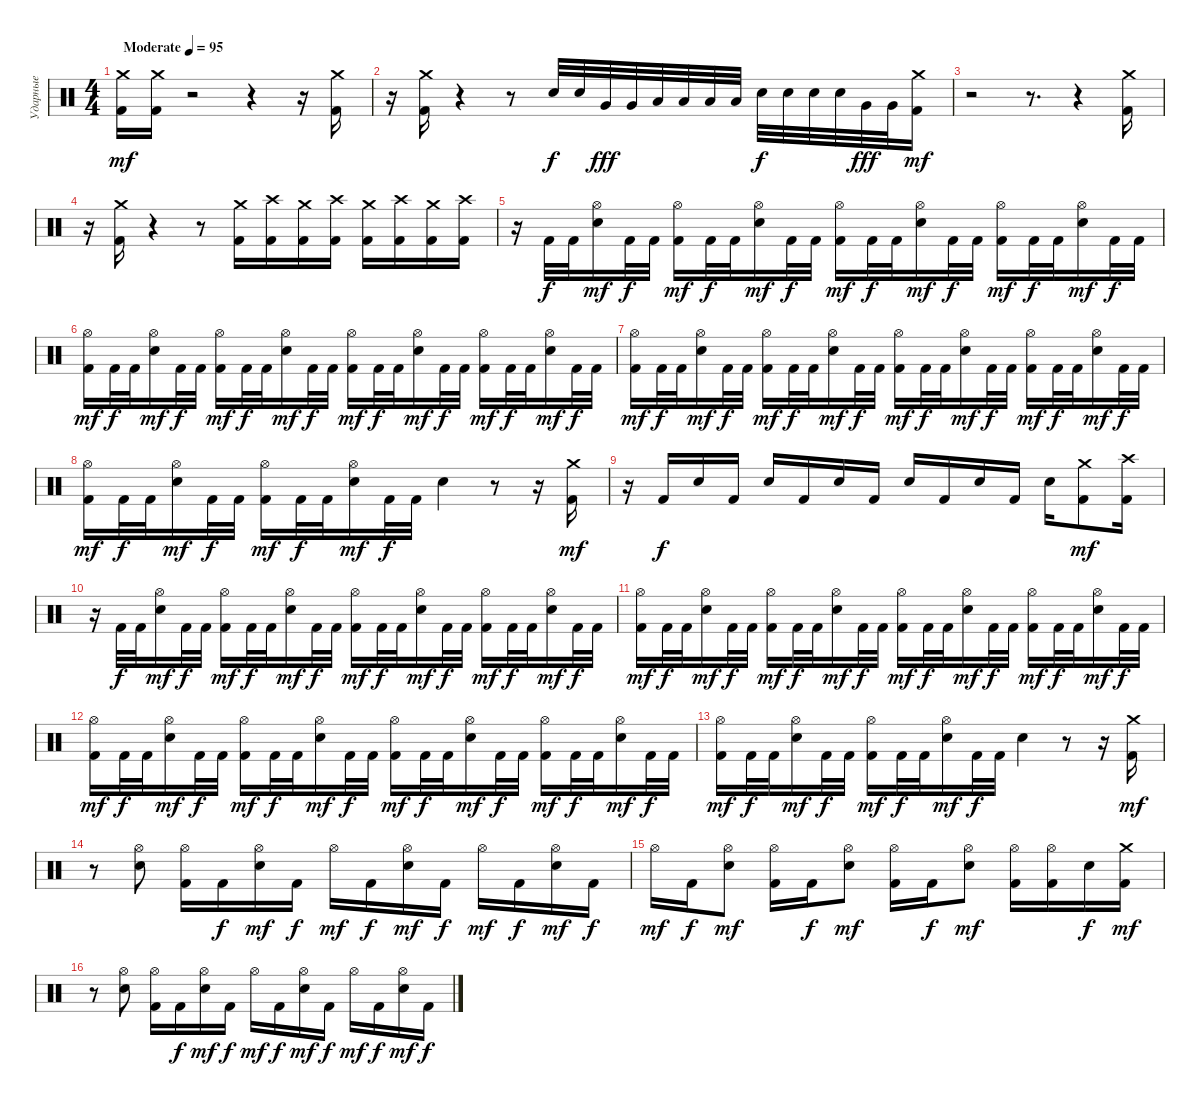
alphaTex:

\track ("Ударные" "Ударные") {instrument percussion}
\staff {score}
\articulation defaults
\ts (4 4)
\tempo (95 "Moderate")
\clef neutral
\ks c
("Crash medium (hit)" "Kick (hit) 2").16{dy mf} ("Crash medium (hit)" "Kick (hit) 2").16 r.2 r.4 r.16 ("Crash medium (hit)" "Kick (hit) 2").16 |
r.16 ("Crash medium (hit)" "Kick (hit) 2").16 r.4 r.8 "Snare (hit) 2".32{dy f} "Snare (hit) 2".32 "Very Low Tom (hit)".32{dy fff} "Very Low Tom (hit)".32 "Low Floor Tom (hit)".32 "Low Floor Tom (hit)".32 "Low Floor Tom (hit)".32 "Low Floor Tom (hit)".32 "Snare (hit) 2".32{dy f} "Snare (hit) 2".32 "Snare (hit) 2".32 "Snare (hit) 2".32 "Very Low Tom (hit)".32{dy fff} "Very Low Tom (hit)".32 ("Crash medium (hit)" "Kick (hit) 2").16{dy mf} |
r.2 r.8{d} r.4 ("Crash medium (hit)" "Kick (hit) 2").16 |
r.16 ("Crash medium (hit)" "Kick (hit) 2").16 r.4 r.8 ("Crash medium (hit)" "Kick (hit) 2").16 ("Crash high (hit)" "Kick (hit) 2").16 ("Crash medium (hit)" "Kick (hit) 2").16 ("Crash high (hit)" "Kick (hit) 2").16 ("Crash medium (hit)" "Kick (hit) 2").16 ("Crash high (hit)" "Kick (hit) 2").16 ("Crash medium (hit)" "Kick (hit) 2").16 ("Crash high (hit)" "Kick (hit) 2").16 |
r.16 "Kick (hit) 2".32{dy f} "Kick (hit) 2".32 ("Hi-Hat (open)" "Snare (hit) 2").16{dy mf} "Kick (hit) 2".32{dy f} "Kick (hit) 2".32 ("Hi-Hat (open)" "Kick (hit) 2").16{dy mf} "Kick (hit) 2".32{dy f} "Kick (hit) 2".32 ("Hi-Hat (open)" "Snare (hit) 2").16{dy mf} "Kick (hit) 2".32{dy f} "Kick (hit) 2".32 ("Hi-Hat (open)" "Kick (hit) 2").16{dy mf} "Kick (hit) 2".32{dy f} "Kick (hit) 2".32 ("Hi-Hat (open)" "Snare (hit) 2").16{dy mf} "Kick (hit) 2".32{dy f} "Kick (hit) 2".32 ("Hi-Hat (open)" "Kick (hit) 2").16{dy mf} "Kick (hit) 2".32{dy f} "Kick (hit) 2".32 ("Hi-Hat (open)" "Snare (hit) 2").16{dy mf} "Kick (hit) 2".32{dy f} "Kick (hit) 2".32 |
("Hi-Hat (open)" "Kick (hit) 2").16{dy mf} "Kick (hit) 2".32{dy f} "Kick (hit) 2".32 ("Hi-Hat (open)" "Snare (hit) 2").16{dy mf} "Kick (hit) 2".32{dy f} "Kick (hit) 2".32 ("Hi-Hat (open)" "Kick (hit) 2").16{dy mf} "Kick (hit) 2".32{dy f} "Kick (hit) 2".32 ("Hi-Hat (open)" "Snare (hit) 2").16{dy mf} "Kick (hit) 2".32{dy f} "Kick (hit) 2".32 ("Hi-Hat (open)" "Kick (hit) 2").16{dy mf} "Kick (hit) 2".32{dy f} "Kick (hit) 2".32 ("Hi-Hat (open)" "Snare (hit) 2").16{dy mf} "Kick (hit) 2".32{dy f} "Kick (hit) 2".32 ("Hi-Hat (open)" "Kick (hit) 2").16{dy mf} "Kick (hit) 2".32{dy f} "Kick (hit) 2".32 ("Hi-Hat (open)" "Snare (hit) 2").16{dy mf} "Kick (hit) 2".32{dy f} "Kick (hit) 2".32 |
("Hi-Hat (open)" "Kick (hit) 2").16{dy mf} "Kick (hit) 2".32{dy f} "Kick (hit) 2".32 ("Hi-Hat (open)" "Snare (hit) 2").16{dy mf} "Kick (hit) 2".32{dy f} "Kick (hit) 2".32 ("Hi-Hat (open)" "Kick (hit) 2").16{dy mf} "Kick (hit) 2".32{dy f} "Kick (hit) 2".32 ("Hi-Hat (open)" "Snare (hit) 2").16{dy mf} "Kick (hit) 2".32{dy f} "Kick (hit) 2".32 ("Hi-Hat (open)" "Kick (hit) 2").16{dy mf} "Kick (hit) 2".32{dy f} "Kick (hit) 2".32 ("Hi-Hat (open)" "Snare (hit) 2").16{dy mf} "Kick (hit) 2".32{dy f} "Kick (hit) 2".32 ("Hi-Hat (open)" "Kick (hit) 2").16{dy mf} "Kick (hit) 2".32{dy f} "Kick (hit) 2".32 ("Hi-Hat (open)" "Snare (hit) 2").16{dy mf} "Kick (hit) 2".32{dy f} "Kick (hit) 2".32 |
("Hi-Hat (open)" "Kick (hit) 2").16{dy mf} "Kick (hit) 2".32{dy f} "Kick (hit) 2".32 ("Hi-Hat (open)" "Snare (hit) 2").16{dy mf} "Kick (hit) 2".32{dy f} "Kick (hit) 2".32 ("Hi-Hat (open)" "Kick (hit) 2").16{dy mf} "Kick (hit) 2".32{dy f} "Kick (hit) 2".32 ("Hi-Hat (open)" "Snare (hit) 2").16{dy mf} "Kick (hit) 2".32{dy f} "Kick (hit) 2".32 "Snare (hit) 2".4 r.8 r.16 ("Crash medium (hit)" "Kick (hit) 2").16{dy mf} |
r.16 "Kick (hit) 2".16{dy f} "Snare (hit) 2".16 "Kick (hit) 2".16 "Snare (hit) 2".16 "Kick (hit) 2".16 "Snare (hit) 2".16 "Kick (hit) 2".16 "Snare (hit) 2".16 "Kick (hit) 2".16 "Snare (hit) 2".16 "Kick (hit) 2".16 "Snare (hit) 2".16 ("Crash medium (hit)" "Kick (hit) 2").8{dy mf} ("Crash high (hit)" "Kick (hit) 2").16 |
r.16 "Kick (hit) 2".32{dy f} "Kick (hit) 2".32 ("Hi-Hat (open)" "Snare (hit) 2").16{dy mf} "Kick (hit) 2".32{dy f} "Kick (hit) 2".32 ("Hi-Hat (open)" "Kick (hit) 2").16{dy mf} "Kick (hit) 2".32{dy f} "Kick (hit) 2".32 ("Hi-Hat (open)" "Snare (hit) 2").16{dy mf} "Kick (hit) 2".32{dy f} "Kick (hit) 2".32 ("Hi-Hat (open)" "Kick (hit) 2").16{dy mf} "Kick (hit) 2".32{dy f} "Kick (hit) 2".32 ("Hi-Hat (open)" "Snare (hit) 2").16{dy mf} "Kick (hit) 2".32{dy f} "Kick (hit) 2".32 ("Hi-Hat (open)" "Kick (hit) 2").16{dy mf} "Kick (hit) 2".32{dy f} "Kick (hit) 2".32 ("Hi-Hat (open)" "Snare (hit) 2").16{dy mf} "Kick (hit) 2".32{dy f} "Kick (hit) 2".32 |
("Hi-Hat (open)" "Kick (hit) 2").16{dy mf} "Kick (hit) 2".32{dy f} "Kick (hit) 2".32 ("Hi-Hat (open)" "Snare (hit) 2").16{dy mf} "Kick (hit) 2".32{dy f} "Kick (hit) 2".32 ("Hi-Hat (open)" "Kick (hit) 2").16{dy mf} "Kick (hit) 2".32{dy f} "Kick (hit) 2".32 ("Hi-Hat (open)" "Snare (hit) 2").16{dy mf} "Kick (hit) 2".32{dy f} "Kick (hit) 2".32 ("Hi-Hat (open)" "Kick (hit) 2").16{dy mf} "Kick (hit) 2".32{dy f} "Kick (hit) 2".32 ("Hi-Hat (open)" "Snare (hit) 2").16{dy mf} "Kick (hit) 2".32{dy f} "Kick (hit) 2".32 ("Hi-Hat (open)" "Kick (hit) 2").16{dy mf} "Kick (hit) 2".32{dy f} "Kick (hit) 2".32 ("Hi-Hat (open)" "Snare (hit) 2").16{dy mf} "Kick (hit) 2".32{dy f} "Kick (hit) 2".32 |
("Hi-Hat (open)" "Kick (hit) 2").16{dy mf} "Kick (hit) 2".32{dy f} "Kick (hit) 2".32 ("Hi-Hat (open)" "Snare (hit) 2").16{dy mf} "Kick (hit) 2".32{dy f} "Kick (hit) 2".32 ("Hi-Hat (open)" "Kick (hit) 2").16{dy mf} "Kick (hit) 2".32{dy f} "Kick (hit) 2".32 ("Hi-Hat (open)" "Snare (hit) 2").16{dy mf} "Kick (hit) 2".32{dy f} "Kick (hit) 2".32 ("Hi-Hat (open)" "Kick (hit) 2").16{dy mf} "Kick (hit) 2".32{dy f} "Kick (hit) 2".32 ("Hi-Hat (open)" "Snare (hit) 2").16{dy mf} "Kick (hit) 2".32{dy f} "Kick (hit) 2".32 ("Hi-Hat (open)" "Kick (hit) 2").16{dy mf} "Kick (hit) 2".32{dy f} "Kick (hit) 2".32 ("Hi-Hat (open)" "Snare (hit) 2").16{dy mf} "Kick (hit) 2".32{dy f} "Kick (hit) 2".32 |
("Hi-Hat (open)" "Kick (hit) 2").16{dy mf} "Kick (hit) 2".32{dy f} "Kick (hit) 2".32 ("Hi-Hat (open)" "Snare (hit) 2").16{dy mf} "Kick (hit) 2".32{dy f} "Kick (hit) 2".32 ("Hi-Hat (open)" "Kick (hit) 2").16{dy mf} "Kick (hit) 2".32{dy f} "Kick (hit) 2".32 ("Hi-Hat (open)" "Snare (hit) 2").16{dy mf} "Kick (hit) 2".32{dy f} "Kick (hit) 2".32 "Snare (hit) 2".4 r.8 r.16 ("Crash medium (hit)" "Kick (hit) 2").16{dy mf} |
r.8 ("Hi-Hat (open)" "Snare (hit) 2").8 ("Hi-Hat (open)" "Kick (hit) 2").16 "Kick (hit) 2".16{dy f} ("Hi-Hat (open)" "Snare (hit) 2").16{dy mf} "Kick (hit) 2".16{dy f} "Hi-Hat (open)".16{dy mf} "Kick (hit) 2".16{dy f} ("Hi-Hat (open)" "Snare (hit) 2").16{dy mf} "Kick (hit) 2".16{dy f} "Hi-Hat (open)".16{dy mf} "Kick (hit) 2".16{dy f} ("Hi-Hat (open)" "Snare (hit) 2").16{dy mf} "Kick (hit) 2".16{dy f} |
"Hi-Hat (open)".16{dy mf} "Kick (hit) 2".16{dy f} ("Hi-Hat (open)" "Snare (hit) 2").8{dy mf} ("Hi-Hat (open)" "Kick (hit) 2").16 "Kick (hit) 2".16{dy f} ("Hi-Hat (open)" "Snare (hit) 2").8{dy mf} ("Hi-Hat (open)" "Kick (hit) 2").16 "Kick (hit) 2".16{dy f} ("Hi-Hat (open)" "Snare (hit) 2").8{dy mf} ("Hi-Hat (open)" "Kick (hit) 2").16 ("Hi-Hat (open)" "Kick (hit) 2").16 "Snare (hit) 2".16{dy f} ("Crash medium (hit)" "Kick (hit) 2").16{dy mf} |
r.8 ("Hi-Hat (open)" "Snare (hit) 2").8 ("Hi-Hat (open)" "Kick (hit) 2").16 "Kick (hit) 2".16{dy f} ("Hi-Hat (open)" "Snare (hit) 2").16{dy mf} "Kick (hit) 2".16{dy f} "Hi-Hat (open)".16{dy mf} "Kick (hit) 2".16{dy f} ("Hi-Hat (open)" "Snare (hit) 2").16{dy mf} "Kick (hit) 2".16{dy f} "Hi-Hat (open)".16{dy mf} "Kick (hit) 2".16{dy f} ("Hi-Hat (open)" "Snare (hit) 2").16{dy mf} "Kick (hit) 2".16{dy f}
